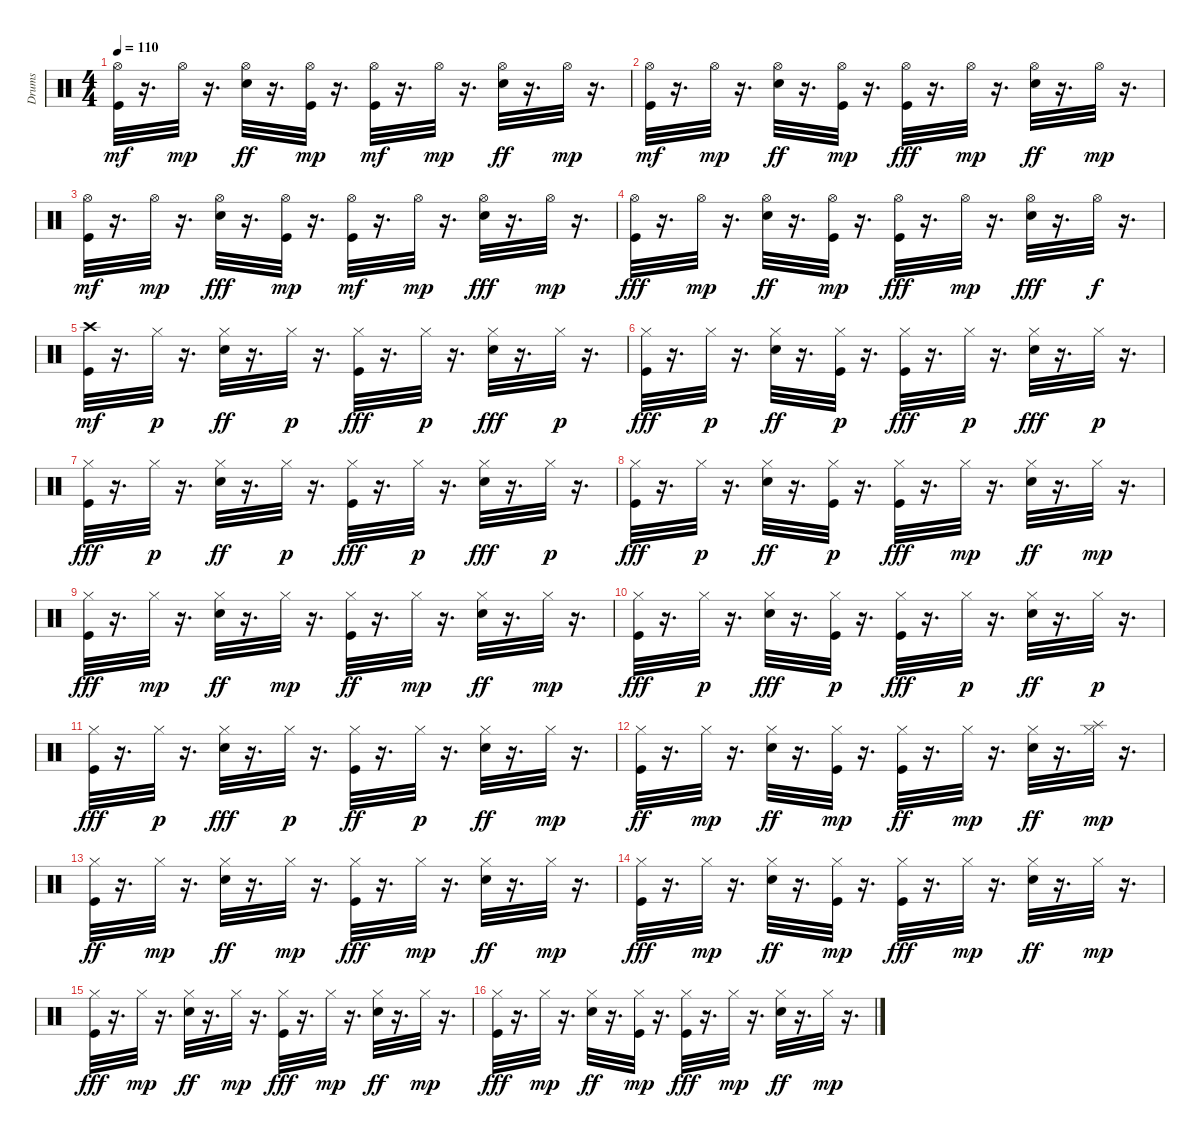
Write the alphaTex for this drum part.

\track ("Drums" "Drums") {instrument percussion}
\staff {score}
\articulation defaults
\ts (4 4)
\tempo 110
\clef neutral
\ks c
("Kick (hit)" "Hi-Hat (open)").32{dy mf} r.16{d} "Hi-Hat (open)".32{dy mp} r.16{d} ("Electric Snare (hit)" "Hi-Hat (open)").32{dy ff} r.16{d} ("Kick (hit)" "Hi-Hat (open)").32{dy mp} r.16{d} ("Kick (hit)" "Hi-Hat (open)").32{dy mf} r.16{d} "Hi-Hat (open)".32{dy mp} r.16{d} ("Electric Snare (hit)" "Hi-Hat (open)").32{dy ff} r.16{d} "Hi-Hat (open)".32{dy mp} r.16{d} |
("Kick (hit)" "Hi-Hat (open)").32{dy mf} r.16{d} "Hi-Hat (open)".32{dy mp} r.16{d} ("Electric Snare (hit)" "Hi-Hat (open)").32{dy ff} r.16{d} ("Kick (hit)" "Hi-Hat (open)").32{dy mp} r.16{d} ("Kick (hit)" "Hi-Hat (open)").32{dy fff} r.16{d} "Hi-Hat (open)".32{dy mp} r.16{d} ("Electric Snare (hit)" "Hi-Hat (open)").32{dy ff} r.16{d} "Hi-Hat (open)".32{dy mp} r.16{d} |
("Kick (hit)" "Hi-Hat (open)").32{dy mf} r.16{d} "Hi-Hat (open)".32{dy mp} r.16{d} ("Electric Snare (hit)" "Hi-Hat (open)").32{dy fff} r.16{d} ("Kick (hit)" "Hi-Hat (open)").32{dy mp} r.16{d} ("Kick (hit)" "Hi-Hat (open)").32{dy mf} r.16{d} "Hi-Hat (open)".32{dy mp} r.16{d} ("Electric Snare (hit)" "Hi-Hat (open)").32{dy fff} r.16{d} "Hi-Hat (open)".32{dy mp} r.16{d} |
("Kick (hit)" "Hi-Hat (open)").32{dy fff} r.16{d} "Hi-Hat (open)".32{dy mp} r.16{d} ("Electric Snare (hit)" "Hi-Hat (open)").32{dy ff} r.16{d} ("Kick (hit)" "Hi-Hat (open)").32{dy mp} r.16{d} ("Kick (hit)" "Hi-Hat (open)").32{dy fff} r.16{d} "Hi-Hat (open)".32{dy mp} r.16{d} ("Electric Snare (hit)" "Hi-Hat (open)").32{dy fff} r.16{d} "Hi-Hat (open)".32{dy f} r.16{d} |
("Kick (hit)" "Crash high (hit)").32{dy mf} r.16{d} "Hi-Hat (closed)".32{dy p} r.16{d} ("Electric Snare (hit)" "Hi-Hat (closed)").32{dy ff} r.16{d} "Hi-Hat (closed)".32{dy p} r.16{d} ("Kick (hit)" "Hi-Hat (closed)").32{dy fff} r.16{d} "Hi-Hat (closed)".32{dy p} r.16{d} ("Electric Snare (hit)" "Hi-Hat (closed)").32{dy fff} r.16{d} "Hi-Hat (closed)".32{dy p} r.16{d} |
("Kick (hit)" "Hi-Hat (closed)").32{dy fff} r.16{d} "Hi-Hat (closed)".32{dy p} r.16{d} ("Electric Snare (hit)" "Hi-Hat (closed)").32{dy ff} r.16{d} ("Kick (hit)" "Hi-Hat (closed)").32{dy p} r.16{d} ("Kick (hit)" "Hi-Hat (closed)").32{dy fff} r.16{d} "Hi-Hat (closed)".32{dy p} r.16{d} ("Electric Snare (hit)" "Hi-Hat (closed)").32{dy fff} r.16{d} "Hi-Hat (closed)".32{dy p} r.16{d} |
("Kick (hit)" "Hi-Hat (closed)").32{dy fff} r.16{d} "Hi-Hat (closed)".32{dy p} r.16{d} ("Hi-Hat (closed)" "Electric Snare (hit)").32{dy ff} r.16{d} "Hi-Hat (closed)".32{dy p} r.16{d} ("Kick (hit)" "Hi-Hat (closed)").32{dy fff} r.16{d} "Hi-Hat (closed)".32{dy p} r.16{d} ("Hi-Hat (closed)" "Electric Snare (hit)").32{dy fff} r.16{d} "Hi-Hat (closed)".32{dy p} r.16{d} |
("Hi-Hat (closed)" "Kick (hit)").32{dy fff} r.16{d} "Hi-Hat (closed)".32{dy p} r.16{d} ("Hi-Hat (closed)" "Electric Snare (hit)").32{dy ff} r.16{d} ("Hi-Hat (closed)" "Kick (hit)").32{dy p} r.16{d} ("Hi-Hat (closed)" "Kick (hit)").32{dy fff} r.16{d} "Hi-Hat (closed)".32{dy mp} r.16{d} ("Hi-Hat (closed)" "Electric Snare (hit)").32{dy ff} r.16{d} "Hi-Hat (closed)".32{dy mp} r.16{d} |
("Hi-Hat (closed)" "Kick (hit)").32{dy fff} r.16{d} "Hi-Hat (closed)".32{dy mp} r.16{d} ("Hi-Hat (closed)" "Electric Snare (hit)").32{dy ff} r.16{d} "Hi-Hat (closed)".32{dy mp} r.16{d} ("Kick (hit)" "Hi-Hat (closed)").32{dy ff} r.16{d} "Hi-Hat (closed)".32{dy mp} r.16{d} ("Hi-Hat (closed)" "Electric Snare (hit)").32{dy ff} r.16{d} "Hi-Hat (closed)".32{dy mp} r.16{d} |
("Kick (hit)" "Hi-Hat (closed)").32{dy fff} r.16{d} "Hi-Hat (closed)".32{dy p} r.16{d} ("Electric Snare (hit)" "Hi-Hat (closed)").32{dy fff} r.16{d} ("Kick (hit)" "Hi-Hat (closed)").32{dy p} r.16{d} ("Kick (hit)" "Hi-Hat (closed)").32{dy fff} r.16{d} "Hi-Hat (closed)".32{dy p} r.16{d} ("Electric Snare (hit)" "Hi-Hat (closed)").32{dy ff} r.16{d} "Hi-Hat (closed)".32{dy p} r.16{d} |
("Kick (hit)" "Hi-Hat (closed)").32{dy fff} r.16{d} "Hi-Hat (closed)".32{dy p} r.16{d} ("Hi-Hat (closed)" "Electric Snare (hit)").32{dy fff} r.16{d} "Hi-Hat (closed)".32{dy p} r.16{d} ("Kick (hit)" "Hi-Hat (closed)").32{dy ff} r.16{d} "Hi-Hat (closed)".32{dy p} r.16{d} ("Hi-Hat (closed)" "Electric Snare (hit)").32{dy ff} r.16{d} "Hi-Hat (closed)".32{dy mp} r.16{d} |
("Kick (hit)" "Hi-Hat (closed)").32{dy ff} r.16{d} "Hi-Hat (closed)".32{dy mp} r.16{d} ("Electric Snare (hit)" "Hi-Hat (closed)").32{dy ff} r.16{d} ("Kick (hit)" "Hi-Hat (closed)").32{dy mp} r.16{d} ("Kick (hit)" "Hi-Hat (closed)").32{dy ff} r.16{d} "Hi-Hat (closed)".32{dy mp} r.16{d} ("Hi-Hat (closed)" "Electric Snare (hit)").32{dy ff} r.16{d} ("Splash (hit)" "Hi-Hat (closed)").32{dy mp} r.16{d} |
("Kick (hit)" "Hi-Hat (closed)").32{dy ff} r.16{d} "Hi-Hat (closed)".32{dy mp} r.16{d} ("Electric Snare (hit)" "Hi-Hat (closed)").32{dy ff} r.16{d} "Hi-Hat (closed)".32{dy mp} r.16{d} ("Kick (hit)" "Hi-Hat (closed)").32{dy fff} r.16{d} "Hi-Hat (closed)".32{dy mp} r.16{d} ("Electric Snare (hit)" "Hi-Hat (closed)").32{dy ff} r.16{d} "Hi-Hat (closed)".32{dy mp} r.16{d} |
("Kick (hit)" "Hi-Hat (closed)").32{dy fff} r.16{d} "Hi-Hat (closed)".32{dy mp} r.16{d} ("Electric Snare (hit)" "Hi-Hat (closed)").32{dy ff} r.16{d} ("Kick (hit)" "Hi-Hat (closed)").32{dy mp} r.16{d} ("Kick (hit)" "Hi-Hat (closed)").32{dy fff} r.16{d} "Hi-Hat (closed)".32{dy mp} r.16{d} ("Electric Snare (hit)" "Hi-Hat (closed)").32{dy ff} r.16{d} "Hi-Hat (closed)".32{dy mp} r.16{d} |
("Kick (hit)" "Hi-Hat (closed)").32{dy fff} r.16{d} "Hi-Hat (closed)".32{dy mp} r.16{d} ("Electric Snare (hit)" "Hi-Hat (closed)").32{dy ff} r.16{d} "Hi-Hat (closed)".32{dy mp} r.16{d} ("Kick (hit)" "Hi-Hat (closed)").32{dy fff} r.16{d} "Hi-Hat (closed)".32{dy mp} r.16{d} ("Electric Snare (hit)" "Hi-Hat (closed)").32{dy ff} r.16{d} "Hi-Hat (closed)".32{dy mp} r.16{d} |
("Kick (hit)" "Hi-Hat (closed)").32{dy fff} r.16{d} "Hi-Hat (closed)".32{dy mp} r.16{d} ("Electric Snare (hit)" "Hi-Hat (closed)").32{dy ff} r.16{d} ("Kick (hit)" "Hi-Hat (closed)").32{dy mp} r.16{d} ("Kick (hit)" "Hi-Hat (closed)").32{dy fff} r.16{d} "Hi-Hat (closed)".32{dy mp} r.16{d} ("Electric Snare (hit)" "Hi-Hat (closed)").32{dy ff} r.16{d} "Hi-Hat (closed)".32{dy mp} r.16{d}
